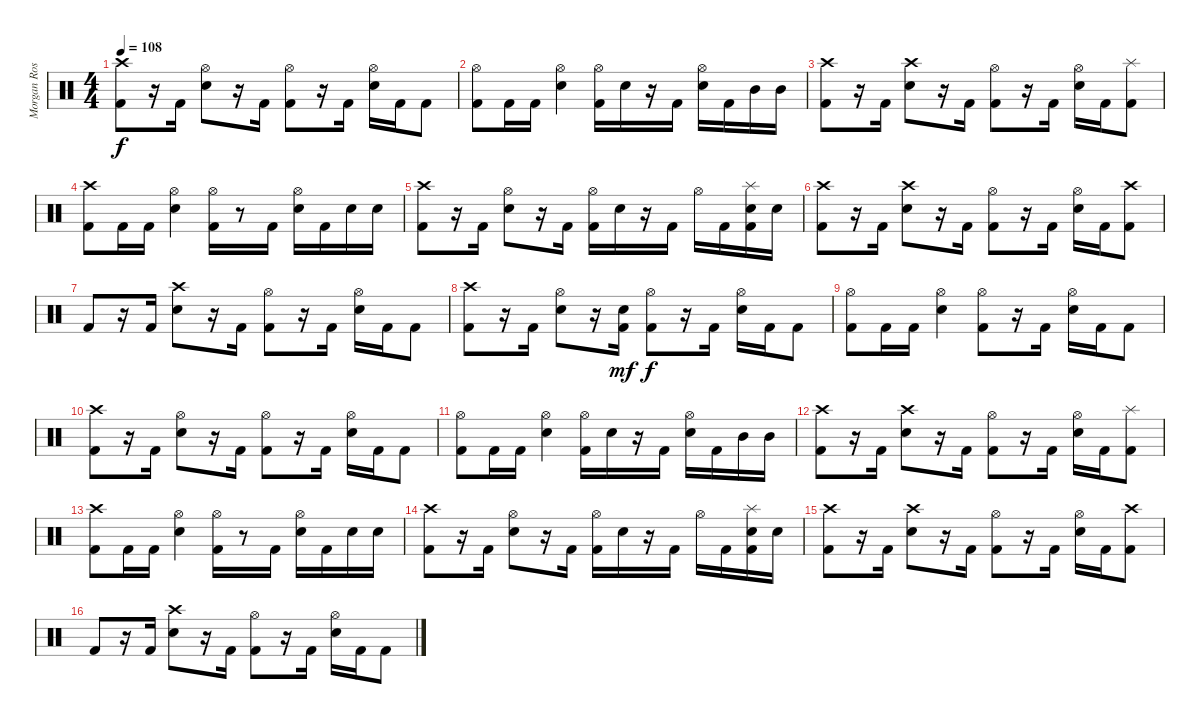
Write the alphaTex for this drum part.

\track ("Morgan Rose - Drums" "Morgan Ros") {instrument percussion}
\staff {score}
\articulation defaults
\ts (4 4)
\tempo 108
\clef neutral
\ks c
("Crash high (hit)" "Kick (hit) 2").8{dy f} r.16 "Kick (hit) 2".16 ("Hi-Hat (open)" "Electric Snare (hit)").8 r.16 "Kick (hit) 2".16 ("Hi-Hat (open)" "Kick (hit) 2").8 r.16 "Kick (hit) 2".16 ("Hi-Hat (open)" "Electric Snare (hit)").16 "Kick (hit) 2".16 "Kick (hit) 2".8 |
("Hi-Hat (open)" "Kick (hit) 2").8 "Kick (hit) 2".16 "Kick (hit) 2".16 ("Hi-Hat (open)" "Electric Snare (hit)").4 ("Hi-Hat (open)" "Kick (hit) 2").16 "Electric Snare (hit)".16 r.16 "Kick (hit) 2".16 ("Hi-Hat (open)" "Electric Snare (hit)").16 "Kick (hit) 2".16 "Mid Tom (hit)".16 "Mid Tom (hit)".16 |
("Crash high (hit)" "Kick (hit) 2").8 r.16 "Kick (hit) 2".16 ("Crash high (hit)" "Electric Snare (hit)").8 r.16 "Kick (hit) 2".16 ("Hi-Hat (open)" "Kick (hit) 2").8 r.16 "Kick (hit) 2".16 ("Hi-Hat (open)" "Electric Snare (hit)").16 "Kick (hit) 2".16 ("Splash (hit)" "Kick (hit) 2").8 |
("Crash high (hit)" "Kick (hit) 2").8 "Kick (hit) 2".16 "Kick (hit) 2".16 ("Hi-Hat (open)" "Electric Snare (hit)").4 ("Hi-Hat (open)" "Kick (hit) 2").16 r.8 "Kick (hit) 2".16 ("Hi-Hat (open)" "Electric Snare (hit)").16 "Kick (hit) 2".16 "Electric Snare (hit)".16 "Electric Snare (hit)".16 |
("Crash high (hit)" "Kick (hit) 2").8 r.16 "Kick (hit) 2".16 ("Hi-Hat (open)" "Electric Snare (hit)").8 r.16 "Kick (hit) 2".16 ("Hi-Hat (open)" "Kick (hit) 2").16 "Electric Snare (hit)".16 r.16 "Kick (hit) 2".16 "Hi-Hat (open)".16 "Kick (hit) 2".16 ("Splash (hit)" "Electric Snare (hit)" "Kick (hit) 2").16 "Electric Snare (hit)".16 |
("Crash high (hit)" "Kick (hit) 2").8 r.16 "Kick (hit) 2".16 ("Crash high (hit)" "Electric Snare (hit)").8 r.16 "Kick (hit) 2".16 ("Hi-Hat (open)" "Kick (hit) 2").8 r.16 "Kick (hit) 2".16 ("Hi-Hat (open)" "Electric Snare (hit)").16 "Kick (hit) 2".16 ("Crash high (hit)" "Kick (hit) 2").8 |
"Kick (hit) 2".8 r.16 "Kick (hit) 2".16 ("Crash high (hit)" "Electric Snare (hit)").8 r.16 "Kick (hit) 2".16 ("Hi-Hat (open)" "Kick (hit) 2").8 r.16 "Kick (hit) 2".16 ("Hi-Hat (open)" "Electric Snare (hit)").16 "Kick (hit) 2".16 "Kick (hit) 2".8 |
("Crash high (hit)" "Kick (hit) 2").8 r.16 "Kick (hit) 2".16 ("Hi-Hat (open)" "Electric Snare (hit)").8 r.16 ("Electric Snare (hit)" "Kick (hit) 2").16{dy mf} ("Hi-Hat (open)" "Kick (hit) 2").8{dy f} r.16 "Kick (hit) 2".16 ("Hi-Hat (open)" "Electric Snare (hit)").16 "Kick (hit) 2".16 "Kick (hit) 2".8 |
("Hi-Hat (open)" "Kick (hit) 2").8 "Kick (hit) 2".16 "Kick (hit) 2".16 ("Hi-Hat (open)" "Electric Snare (hit)").4 ("Hi-Hat (open)" "Kick (hit) 2").8 r.16 "Kick (hit) 2".16 ("Hi-Hat (open)" "Electric Snare (hit)").16 "Kick (hit) 2".16 "Kick (hit) 2".8 |
("Crash high (hit)" "Kick (hit) 2").8 r.16 "Kick (hit) 2".16 ("Hi-Hat (open)" "Electric Snare (hit)").8 r.16 "Kick (hit) 2".16 ("Hi-Hat (open)" "Kick (hit) 2").8 r.16 "Kick (hit) 2".16 ("Hi-Hat (open)" "Electric Snare (hit)").16 "Kick (hit) 2".16 "Kick (hit) 2".8 |
("Hi-Hat (open)" "Kick (hit) 2").8 "Kick (hit) 2".16 "Kick (hit) 2".16 ("Hi-Hat (open)" "Electric Snare (hit)").4 ("Hi-Hat (open)" "Kick (hit) 2").16 "Electric Snare (hit)".16 r.16 "Kick (hit) 2".16 ("Hi-Hat (open)" "Electric Snare (hit)").16 "Kick (hit) 2".16 "Mid Tom (hit)".16 "Mid Tom (hit)".16 |
("Crash high (hit)" "Kick (hit) 2").8 r.16 "Kick (hit) 2".16 ("Crash high (hit)" "Electric Snare (hit)").8 r.16 "Kick (hit) 2".16 ("Hi-Hat (open)" "Kick (hit) 2").8 r.16 "Kick (hit) 2".16 ("Hi-Hat (open)" "Electric Snare (hit)").16 "Kick (hit) 2".16 ("Splash (hit)" "Kick (hit) 2").8 |
("Crash high (hit)" "Kick (hit) 2").8 "Kick (hit) 2".16 "Kick (hit) 2".16 ("Hi-Hat (open)" "Electric Snare (hit)").4 ("Hi-Hat (open)" "Kick (hit) 2").16 r.8 "Kick (hit) 2".16 ("Hi-Hat (open)" "Electric Snare (hit)").16 "Kick (hit) 2".16 "Electric Snare (hit)".16 "Electric Snare (hit)".16 |
("Crash high (hit)" "Kick (hit) 2").8 r.16 "Kick (hit) 2".16 ("Hi-Hat (open)" "Electric Snare (hit)").8 r.16 "Kick (hit) 2".16 ("Hi-Hat (open)" "Kick (hit) 2").16 "Electric Snare (hit)".16 r.16 "Kick (hit) 2".16 "Hi-Hat (open)".16 "Kick (hit) 2".16 ("Splash (hit)" "Electric Snare (hit)" "Kick (hit) 2").16 "Electric Snare (hit)".16 |
("Crash high (hit)" "Kick (hit) 2").8 r.16 "Kick (hit) 2".16 ("Crash high (hit)" "Electric Snare (hit)").8 r.16 "Kick (hit) 2".16 ("Hi-Hat (open)" "Kick (hit) 2").8 r.16 "Kick (hit) 2".16 ("Hi-Hat (open)" "Electric Snare (hit)").16 "Kick (hit) 2".16 ("Crash high (hit)" "Kick (hit) 2").8 |
"Kick (hit) 2".8 r.16 "Kick (hit) 2".16 ("Crash high (hit)" "Electric Snare (hit)").8 r.16 "Kick (hit) 2".16 ("Hi-Hat (open)" "Kick (hit) 2").8 r.16 "Kick (hit) 2".16 ("Hi-Hat (open)" "Electric Snare (hit)").16 "Kick (hit) 2".16 "Kick (hit) 2".8
